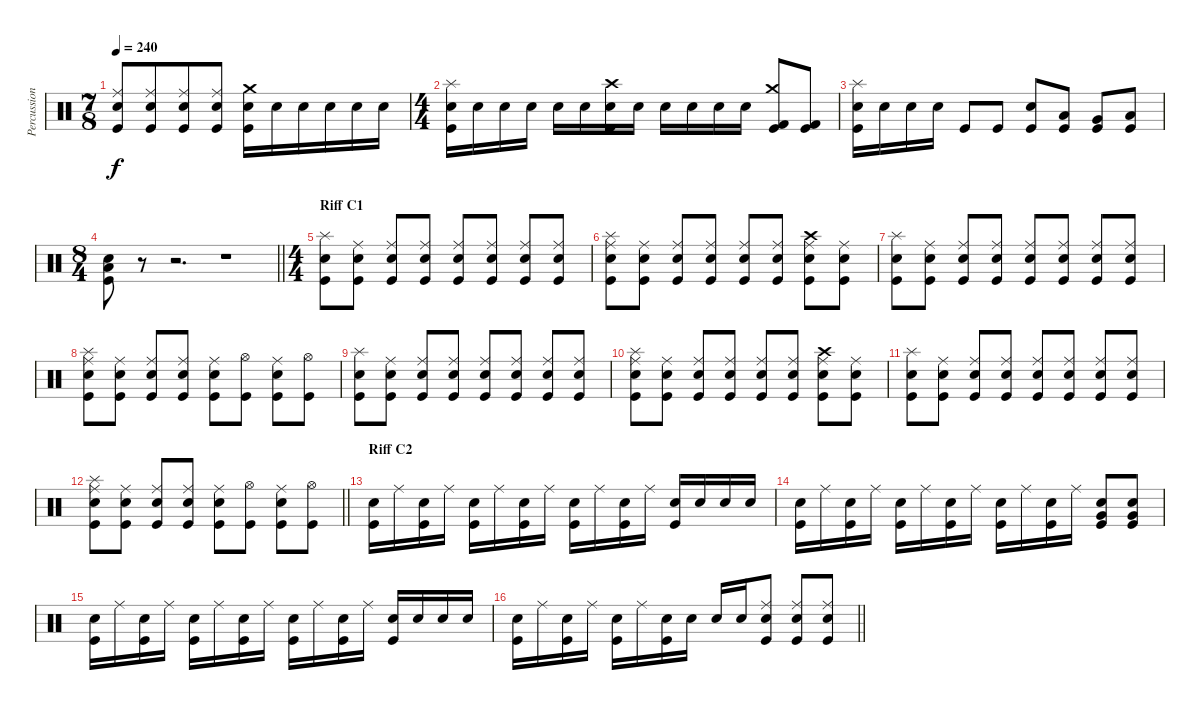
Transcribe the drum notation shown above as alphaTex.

\track ("Percussions" "Percussion") {instrument percussion}
\staff {score}
\articulation defaults
\ts (7 8)
\tempo 240
\clef neutral
\ks c
("Electric Snare (hit)" "Ride (middle)" "Kick (hit)").8{dy f} ("Electric Snare (hit)" "Ride (middle)" "Kick (hit)").8 ("Electric Snare (hit)" "Ride (middle)" "Kick (hit)").8 ("Electric Snare (hit)" "Ride (middle)" "Kick (hit)").8 ("Crash medium (hit)" "Electric Snare (hit)" "Kick (hit)").16 "Electric Snare (hit)".16 "Electric Snare (hit)".16 "Electric Snare (hit)".16 "Electric Snare (hit)".16 "Electric Snare (hit)".16 |
\ts (4 4)
("Splash (hit)" "Electric Snare (hit)" "Kick (hit)").16 "Electric Snare (hit)".16 "Electric Snare (hit)".16 "Electric Snare (hit)".16 "Electric Snare (hit)".16 "Electric Snare (hit)".16 ("Crash high (hit)" "Electric Snare (hit)" "Kick (hit)").16 "Electric Snare (hit)".16 "Electric Snare (hit)".16 "Electric Snare (hit)".16 "Electric Snare (hit)".16 "Electric Snare (hit)".16 ("Crash medium (hit)" "Kick (hit) 2" "Kick (hit)").8 ("Kick (hit) 2" "Kick (hit)").8 |
("Splash (hit)" "Electric Snare (hit)" "Kick (hit)").16 "Electric Snare (hit)".16 "Electric Snare (hit)".16 "Electric Snare (hit)".16 "Kick (hit)".8 "Kick (hit)".8 ("Electric Snare (hit)" "Kick (hit)").8 ("Low Tom (hit)" "Kick (hit)").8 ("Very Low Tom (hit)" "Kick (hit)").8 ("Low Tom (hit)" "Kick (hit)").8 |
\ts (8 4)
\barLineRight lightlight
("Electric Snare (hit)" "Low Floor Tom (hit)" "Kick (hit)").8 r.8{volume 0} r.2{d} r.1 |
\ts (4 4)
\section ("" "Riff C1")
("Splash (hit)" "Electric Snare (hit)" "Kick (hit)").8{volume 13} ("Electric Snare (hit)" "Ride (middle)" "Kick (hit)").8 ("Electric Snare (hit)" "Ride (middle)" "Kick (hit)").8 ("Electric Snare (hit)" "Ride (middle)" "Kick (hit)").8 ("Electric Snare (hit)" "Ride (middle)" "Kick (hit)").8 ("Electric Snare (hit)" "Ride (middle)" "Kick (hit)").8 ("Electric Snare (hit)" "Ride (middle)" "Kick (hit)").8 ("Electric Snare (hit)" "Ride (middle)" "Kick (hit)").8 |
("Splash (hit)" "Electric Snare (hit)" "Ride (middle)" "Kick (hit)").8 ("Electric Snare (hit)" "Ride (middle)" "Kick (hit)").8 ("Electric Snare (hit)" "Ride (middle)" "Kick (hit)").8 ("Electric Snare (hit)" "Ride (middle)" "Kick (hit)").8 ("Electric Snare (hit)" "Ride (middle)" "Kick (hit)").8 ("Electric Snare (hit)" "Ride (middle)" "Kick (hit)").8 ("Crash high (hit)" "Electric Snare (hit)" "Ride (middle)" "Kick (hit)").8 ("Electric Snare (hit)" "Ride (middle)" "Kick (hit)").8 |
("Splash (hit)" "Electric Snare (hit)" "Kick (hit)").8{volume 13} ("Electric Snare (hit)" "Ride (middle)" "Kick (hit)").8 ("Electric Snare (hit)" "Ride (middle)" "Kick (hit)").8 ("Electric Snare (hit)" "Ride (middle)" "Kick (hit)").8 ("Electric Snare (hit)" "Ride (middle)" "Kick (hit)").8 ("Electric Snare (hit)" "Ride (middle)" "Kick (hit)").8 ("Electric Snare (hit)" "Ride (middle)" "Kick (hit)").8 ("Electric Snare (hit)" "Ride (middle)" "Kick (hit)").8 |
("Splash (hit)" "Electric Snare (hit)" "Ride (middle)" "Kick (hit)").8 ("Electric Snare (hit)" "Ride (middle)" "Kick (hit)").8 ("Electric Snare (hit)" "Ride (middle)" "Kick (hit)").8 ("Electric Snare (hit)" "Ride (middle)" "Kick (hit)").8 ("Electric Snare (hit)" "Ride (middle)" "Kick (hit)").8 ("Hi-Hat (open)" "Kick (hit)").8 ("Electric Snare (hit)" "Ride (middle)" "Kick (hit)").8 ("Hi-Hat (open)" "Kick (hit)").8 |
("Splash (hit)" "Electric Snare (hit)" "Kick (hit)").8{volume 13} ("Electric Snare (hit)" "Ride (middle)" "Kick (hit)").8 ("Electric Snare (hit)" "Ride (middle)" "Kick (hit)").8 ("Electric Snare (hit)" "Ride (middle)" "Kick (hit)").8 ("Electric Snare (hit)" "Ride (middle)" "Kick (hit)").8 ("Electric Snare (hit)" "Ride (middle)" "Kick (hit)").8 ("Electric Snare (hit)" "Ride (middle)" "Kick (hit)").8 ("Electric Snare (hit)" "Ride (middle)" "Kick (hit)").8 |
("Splash (hit)" "Electric Snare (hit)" "Ride (middle)" "Kick (hit)").8 ("Electric Snare (hit)" "Ride (middle)" "Kick (hit)").8 ("Electric Snare (hit)" "Ride (middle)" "Kick (hit)").8 ("Electric Snare (hit)" "Ride (middle)" "Kick (hit)").8 ("Electric Snare (hit)" "Ride (middle)" "Kick (hit)").8 ("Electric Snare (hit)" "Ride (middle)" "Kick (hit)").8 ("Crash high (hit)" "Electric Snare (hit)" "Ride (middle)" "Kick (hit)").8 ("Electric Snare (hit)" "Ride (middle)" "Kick (hit)").8 |
("Splash (hit)" "Electric Snare (hit)" "Kick (hit)").8{volume 13} ("Electric Snare (hit)" "Ride (middle)" "Kick (hit)").8 ("Electric Snare (hit)" "Ride (middle)" "Kick (hit)").8 ("Electric Snare (hit)" "Ride (middle)" "Kick (hit)").8 ("Electric Snare (hit)" "Ride (middle)" "Kick (hit)").8 ("Electric Snare (hit)" "Ride (middle)" "Kick (hit)").8 ("Electric Snare (hit)" "Ride (middle)" "Kick (hit)").8 ("Electric Snare (hit)" "Ride (middle)" "Kick (hit)").8 |
\barLineRight lightlight
("Splash (hit)" "Electric Snare (hit)" "Ride (middle)" "Kick (hit)").8 ("Electric Snare (hit)" "Ride (middle)" "Kick (hit)").8 ("Electric Snare (hit)" "Ride (middle)" "Kick (hit)").8 ("Electric Snare (hit)" "Ride (middle)" "Kick (hit)").8 ("Electric Snare (hit)" "Ride (middle)" "Kick (hit)").8 ("Hi-Hat (open)" "Kick (hit)").8 ("Electric Snare (hit)" "Ride (middle)" "Kick (hit)").8 ("Hi-Hat (open)" "Kick (hit)").8 |
\section ("" "Riff C2")
("Electric Snare (hit)" "Kick (hit)").16 "Ride (middle)".16 ("Electric Snare (hit)" "Kick (hit)").16 "Ride (middle)".16 ("Electric Snare (hit)" "Kick (hit)").16 "Ride (middle)".16 ("Electric Snare (hit)" "Kick (hit)").16 "Ride (middle)".16 ("Electric Snare (hit)" "Kick (hit)").16 "Ride (middle)".16 ("Electric Snare (hit)" "Kick (hit)").16 "Ride (middle)".16 ("Electric Snare (hit)" "Kick (hit)").16 "Electric Snare (hit)".16 "Electric Snare (hit)".16 "Electric Snare (hit)".16 |
("Electric Snare (hit)" "Kick (hit)").16 "Ride (middle)".16 ("Electric Snare (hit)" "Kick (hit)").16 "Ride (middle)".16 ("Electric Snare (hit)" "Kick (hit)").16 "Ride (middle)".16 ("Electric Snare (hit)" "Kick (hit)").16 "Ride (middle)".16 ("Electric Snare (hit)" "Kick (hit)").16 "Ride (middle)".16 ("Electric Snare (hit)" "Kick (hit)").16 "Ride (middle)".16 ("Electric Snare (hit)" "Very Low Tom (hit)" "Kick (hit)").8 ("Electric Snare (hit)" "Very Low Tom (hit)" "Kick (hit)").8 |
("Electric Snare (hit)" "Kick (hit)").16 "Ride (middle)".16 ("Electric Snare (hit)" "Kick (hit)").16 "Ride (middle)".16 ("Electric Snare (hit)" "Kick (hit)").16 "Ride (middle)".16 ("Electric Snare (hit)" "Kick (hit)").16 "Ride (middle)".16 ("Electric Snare (hit)" "Kick (hit)").16 "Ride (middle)".16 ("Electric Snare (hit)" "Kick (hit)").16 "Ride (middle)".16 ("Electric Snare (hit)" "Kick (hit)").16 "Electric Snare (hit)".16 "Electric Snare (hit)".16 "Electric Snare (hit)".16 |
\barLineRight lightlight
("Electric Snare (hit)" "Kick (hit)").16 "Ride (middle)".16 ("Electric Snare (hit)" "Kick (hit)").16 "Ride (middle)".16 ("Electric Snare (hit)" "Kick (hit)").16 "Ride (middle)".16 ("Electric Snare (hit)" "Kick (hit)").16 "Electric Snare (hit)".16 "Electric Snare (hit)".16 "Electric Snare (hit)".16 ("Electric Snare (hit)" "Ride (middle)" "Kick (hit)").8 ("Electric Snare (hit)" "Ride (middle)" "Kick (hit)").8 ("Electric Snare (hit)" "Ride (middle)" "Kick (hit)").8
